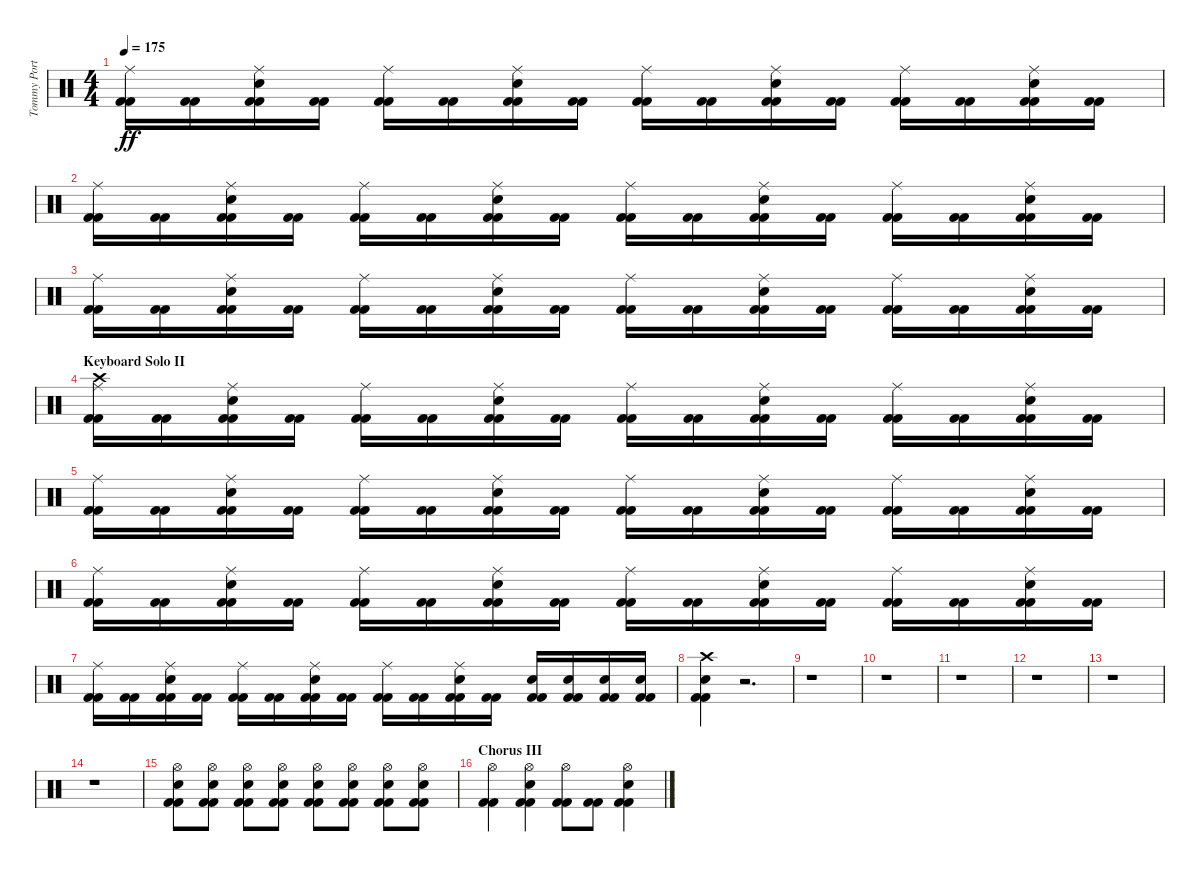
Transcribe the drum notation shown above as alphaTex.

\track ("Tommy Portimo" "Tommy Port") {instrument percussion}
\staff {score}
\articulation defaults
\ts (4 4)
\tempo 175
\clef neutral
\ks c
("Kick (hit) 2" "Kick (hit) 2" "Ride (middle)").16{dy ff} ("Kick (hit) 2" "Kick (hit) 2").16 ("Kick (hit) 2" "Kick (hit) 2" "Ride (middle)" "Electric Snare (hit)").16 ("Kick (hit) 2" "Kick (hit) 2").16 ("Kick (hit) 2" "Kick (hit) 2" "Ride (middle)").16 ("Kick (hit) 2" "Kick (hit) 2").16 ("Kick (hit) 2" "Kick (hit) 2" "Ride (middle)" "Electric Snare (hit)").16 ("Kick (hit) 2" "Kick (hit) 2").16 ("Kick (hit) 2" "Kick (hit) 2" "Ride (middle)").16 ("Kick (hit) 2" "Kick (hit) 2").16 ("Kick (hit) 2" "Kick (hit) 2" "Ride (middle)" "Electric Snare (hit)").16 ("Kick (hit) 2" "Kick (hit) 2").16 ("Kick (hit) 2" "Kick (hit) 2" "Ride (middle)").16 ("Kick (hit) 2" "Kick (hit) 2").16 ("Kick (hit) 2" "Kick (hit) 2" "Ride (middle)" "Electric Snare (hit)").16 ("Kick (hit) 2" "Kick (hit) 2").16 |
("Kick (hit) 2" "Kick (hit) 2" "Ride (middle)").16 ("Kick (hit) 2" "Kick (hit) 2").16 ("Kick (hit) 2" "Kick (hit) 2" "Ride (middle)" "Electric Snare (hit)").16 ("Kick (hit) 2" "Kick (hit) 2").16 ("Kick (hit) 2" "Kick (hit) 2" "Ride (middle)").16 ("Kick (hit) 2" "Kick (hit) 2").16 ("Kick (hit) 2" "Kick (hit) 2" "Ride (middle)" "Electric Snare (hit)").16 ("Kick (hit) 2" "Kick (hit) 2").16 ("Kick (hit) 2" "Kick (hit) 2" "Ride (middle)").16 ("Kick (hit) 2" "Kick (hit) 2").16 ("Kick (hit) 2" "Kick (hit) 2" "Ride (middle)" "Electric Snare (hit)").16 ("Kick (hit) 2" "Kick (hit) 2").16 ("Kick (hit) 2" "Kick (hit) 2" "Ride (middle)").16 ("Kick (hit) 2" "Kick (hit) 2").16 ("Kick (hit) 2" "Kick (hit) 2" "Ride (middle)" "Electric Snare (hit)").16 ("Kick (hit) 2" "Kick (hit) 2").16 |
("Kick (hit) 2" "Kick (hit) 2" "Ride (middle)").16 ("Kick (hit) 2" "Kick (hit) 2").16 ("Kick (hit) 2" "Kick (hit) 2" "Ride (middle)" "Electric Snare (hit)").16 ("Kick (hit) 2" "Kick (hit) 2").16 ("Kick (hit) 2" "Kick (hit) 2" "Ride (middle)").16 ("Kick (hit) 2" "Kick (hit) 2").16 ("Kick (hit) 2" "Kick (hit) 2" "Ride (middle)" "Electric Snare (hit)").16 ("Kick (hit) 2" "Kick (hit) 2").16 ("Kick (hit) 2" "Kick (hit) 2" "Ride (middle)").16 ("Kick (hit) 2" "Kick (hit) 2").16 ("Kick (hit) 2" "Kick (hit) 2" "Ride (middle)" "Electric Snare (hit)").16 ("Kick (hit) 2" "Kick (hit) 2").16 ("Kick (hit) 2" "Kick (hit) 2" "Ride (middle)").16 ("Kick (hit) 2" "Kick (hit) 2").16 ("Kick (hit) 2" "Kick (hit) 2" "Ride (middle)" "Electric Snare (hit)").16 ("Kick (hit) 2" "Kick (hit) 2").16 |
\section ("" "Keyboard Solo II")
("Kick (hit) 2" "Kick (hit) 2" "Ride (middle)" "Crash high (hit)").16 ("Kick (hit) 2" "Kick (hit) 2").16 ("Kick (hit) 2" "Kick (hit) 2" "Ride (middle)" "Electric Snare (hit)").16 ("Kick (hit) 2" "Kick (hit) 2").16 ("Kick (hit) 2" "Kick (hit) 2" "Ride (middle)").16 ("Kick (hit) 2" "Kick (hit) 2").16 ("Kick (hit) 2" "Kick (hit) 2" "Ride (middle)" "Electric Snare (hit)").16 ("Kick (hit) 2" "Kick (hit) 2").16 ("Kick (hit) 2" "Kick (hit) 2" "Ride (middle)").16 ("Kick (hit) 2" "Kick (hit) 2").16 ("Kick (hit) 2" "Kick (hit) 2" "Ride (middle)" "Electric Snare (hit)").16 ("Kick (hit) 2" "Kick (hit) 2").16 ("Kick (hit) 2" "Kick (hit) 2" "Ride (middle)").16 ("Kick (hit) 2" "Kick (hit) 2").16 ("Kick (hit) 2" "Kick (hit) 2" "Ride (middle)" "Electric Snare (hit)").16 ("Kick (hit) 2" "Kick (hit) 2").16 |
("Kick (hit) 2" "Kick (hit) 2" "Ride (middle)").16 ("Kick (hit) 2" "Kick (hit) 2").16 ("Kick (hit) 2" "Kick (hit) 2" "Ride (middle)" "Electric Snare (hit)").16 ("Kick (hit) 2" "Kick (hit) 2").16 ("Kick (hit) 2" "Kick (hit) 2" "Ride (middle)").16 ("Kick (hit) 2" "Kick (hit) 2").16 ("Kick (hit) 2" "Kick (hit) 2" "Ride (middle)" "Electric Snare (hit)").16 ("Kick (hit) 2" "Kick (hit) 2").16 ("Kick (hit) 2" "Kick (hit) 2" "Ride (middle)").16 ("Kick (hit) 2" "Kick (hit) 2").16 ("Kick (hit) 2" "Kick (hit) 2" "Ride (middle)" "Electric Snare (hit)").16 ("Kick (hit) 2" "Kick (hit) 2").16 ("Kick (hit) 2" "Kick (hit) 2" "Ride (middle)").16 ("Kick (hit) 2" "Kick (hit) 2").16 ("Kick (hit) 2" "Kick (hit) 2" "Ride (middle)" "Electric Snare (hit)").16 ("Kick (hit) 2" "Kick (hit) 2").16 |
("Kick (hit) 2" "Kick (hit) 2" "Ride (middle)").16 ("Kick (hit) 2" "Kick (hit) 2").16 ("Kick (hit) 2" "Kick (hit) 2" "Ride (middle)" "Electric Snare (hit)").16 ("Kick (hit) 2" "Kick (hit) 2").16 ("Kick (hit) 2" "Kick (hit) 2" "Ride (middle)").16 ("Kick (hit) 2" "Kick (hit) 2").16 ("Kick (hit) 2" "Kick (hit) 2" "Ride (middle)" "Electric Snare (hit)").16 ("Kick (hit) 2" "Kick (hit) 2").16 ("Kick (hit) 2" "Kick (hit) 2" "Ride (middle)").16 ("Kick (hit) 2" "Kick (hit) 2").16 ("Kick (hit) 2" "Kick (hit) 2" "Ride (middle)" "Electric Snare (hit)").16 ("Kick (hit) 2" "Kick (hit) 2").16 ("Kick (hit) 2" "Kick (hit) 2" "Ride (middle)").16 ("Kick (hit) 2" "Kick (hit) 2").16 ("Kick (hit) 2" "Kick (hit) 2" "Ride (middle)" "Electric Snare (hit)").16 ("Kick (hit) 2" "Kick (hit) 2").16 |
("Kick (hit) 2" "Kick (hit) 2" "Ride (middle)").16 ("Kick (hit) 2" "Kick (hit) 2").16 ("Kick (hit) 2" "Kick (hit) 2" "Ride (middle)" "Electric Snare (hit)").16 ("Kick (hit) 2" "Kick (hit) 2").16 ("Kick (hit) 2" "Kick (hit) 2" "Ride (middle)").16 ("Kick (hit) 2" "Kick (hit) 2").16 ("Kick (hit) 2" "Kick (hit) 2" "Ride (middle)" "Electric Snare (hit)").16 ("Kick (hit) 2" "Kick (hit) 2").16 ("Kick (hit) 2" "Kick (hit) 2" "Ride (middle)").16 ("Kick (hit) 2" "Kick (hit) 2").16 ("Kick (hit) 2" "Kick (hit) 2" "Ride (middle)" "Electric Snare (hit)").16 ("Kick (hit) 2" "Kick (hit) 2").16 ("Kick (hit) 2" "Kick (hit) 2" "Electric Snare (hit)").16 ("Kick (hit) 2" "Kick (hit) 2" "Electric Snare (hit)").16 ("Kick (hit) 2" "Kick (hit) 2" "Electric Snare (hit)").16 ("Kick (hit) 2" "Kick (hit) 2" "Electric Snare (hit)").16 |
("Kick (hit) 2" "Kick (hit) 2" "Electric Snare (hit)" "Crash high (hit)").4 r.2{d} |
r.1 |
r.1 |
r.1 |
r.1 |
r.1 |
r.1 |
("Kick (hit) 2" "Kick (hit) 2" "Electric Snare (hit)" "Hi-Hat (open)").8 ("Kick (hit) 2" "Kick (hit) 2" "Electric Snare (hit)" "Hi-Hat (open)").8 ("Kick (hit) 2" "Kick (hit) 2" "Electric Snare (hit)" "Hi-Hat (open)").8 ("Kick (hit) 2" "Kick (hit) 2" "Electric Snare (hit)" "Hi-Hat (open)").8 ("Kick (hit) 2" "Kick (hit) 2" "Electric Snare (hit)" "Hi-Hat (open)").8 ("Kick (hit) 2" "Kick (hit) 2" "Electric Snare (hit)" "Hi-Hat (open)").8 ("Kick (hit) 2" "Kick (hit) 2" "Electric Snare (hit)" "Hi-Hat (open)").8 ("Kick (hit) 2" "Kick (hit) 2" "Electric Snare (hit)" "Hi-Hat (open)").8 |
\section ("" "Chorus III")
("Kick (hit) 2" "Kick (hit) 2" "Hi-Hat (open)").4 ("Kick (hit) 2" "Kick (hit) 2" "Electric Snare (hit)" "Hi-Hat (open)").4 ("Kick (hit) 2" "Kick (hit) 2" "Hi-Hat (open)").8 ("Kick (hit) 2" "Kick (hit) 2").8 ("Kick (hit) 2" "Kick (hit) 2" "Electric Snare (hit)" "Hi-Hat (open)").4
